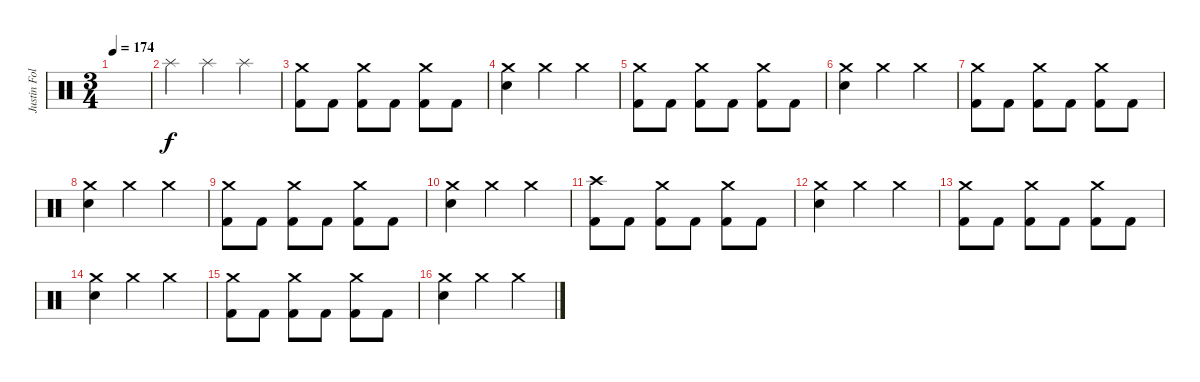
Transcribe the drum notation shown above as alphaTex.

\track ("Justin Foley" "Justin Fol") {instrument percussion}
\staff {score}
\articulation defaults
\ts (3 4)
\tempo 174
\clef neutral
\ks c
|
"Splash (hit)".4 "Splash (hit)".4 "Splash (hit)".4 |
("Crash medium (hit)" "Kick (hit) 2").8 "Kick (hit) 2".8 ("Crash medium (hit)" "Kick (hit) 2").8 "Kick (hit) 2".8 ("Crash medium (hit)" "Kick (hit) 2").8 "Kick (hit) 2".8 |
("Crash medium (hit)" "Electric Snare (hit)").4 "Crash medium (hit)".4 "Crash medium (hit)".4 |
("Crash medium (hit)" "Kick (hit) 2").8 "Kick (hit) 2".8 ("Crash medium (hit)" "Kick (hit) 2").8 "Kick (hit) 2".8 ("Crash medium (hit)" "Kick (hit) 2").8 "Kick (hit) 2".8 |
("Crash medium (hit)" "Electric Snare (hit)").4 "Crash medium (hit)".4 "Crash medium (hit)".4 |
("Crash medium (hit)" "Kick (hit) 2").8 "Kick (hit) 2".8 ("Crash medium (hit)" "Kick (hit) 2").8 "Kick (hit) 2".8 ("Crash medium (hit)" "Kick (hit) 2").8 "Kick (hit) 2".8 |
("Crash medium (hit)" "Electric Snare (hit)").4 "Crash medium (hit)".4 "Crash medium (hit)".4 |
("Crash medium (hit)" "Kick (hit) 2").8 "Kick (hit) 2".8 ("Crash medium (hit)" "Kick (hit) 2").8 "Kick (hit) 2".8 ("Crash medium (hit)" "Kick (hit) 2").8 "Kick (hit) 2".8 |
("Crash medium (hit)" "Electric Snare (hit)").4 "Crash medium (hit)".4 "Crash medium (hit)".4 |
("Crash high (hit)" "Kick (hit) 2").8 "Kick (hit) 2".8 ("Crash medium (hit)" "Kick (hit) 2").8 "Kick (hit) 2".8 ("Crash medium (hit)" "Kick (hit) 2").8 "Kick (hit) 2".8 |
("Crash medium (hit)" "Electric Snare (hit)").4 "Crash medium (hit)".4 "Crash medium (hit)".4 |
("Crash medium (hit)" "Kick (hit) 2").8 "Kick (hit) 2".8 ("Crash medium (hit)" "Kick (hit) 2").8 "Kick (hit) 2".8 ("Crash medium (hit)" "Kick (hit) 2").8 "Kick (hit) 2".8 |
("Crash medium (hit)" "Electric Snare (hit)").4 "Crash medium (hit)".4 "Crash medium (hit)".4 |
("Crash medium (hit)" "Kick (hit) 2").8 "Kick (hit) 2".8 ("Crash medium (hit)" "Kick (hit) 2").8 "Kick (hit) 2".8 ("Crash medium (hit)" "Kick (hit) 2").8 "Kick (hit) 2".8 |
("Crash medium (hit)" "Electric Snare (hit)").4 "Crash medium (hit)".4 "Crash medium (hit)".4
